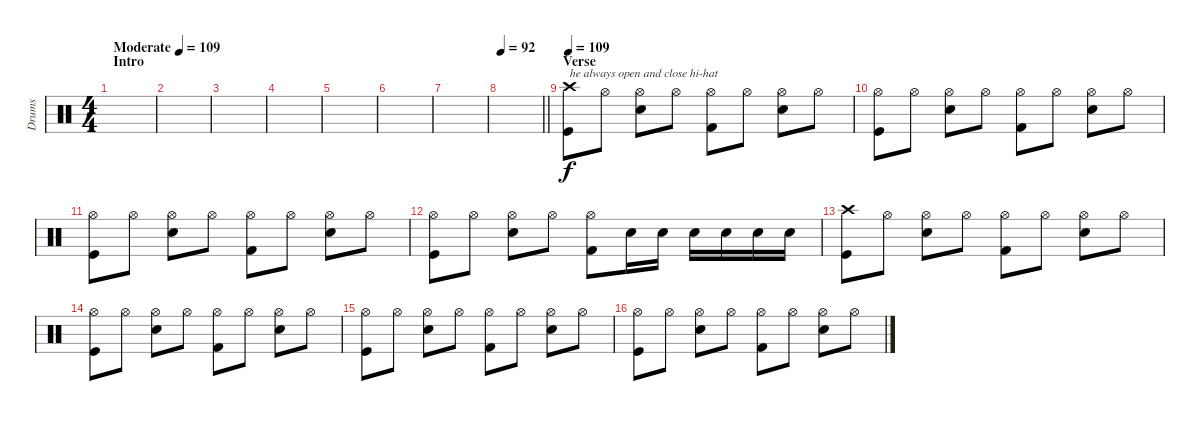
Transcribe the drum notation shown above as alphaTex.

\track ("Drums" "Drums") {instrument percussion}
\staff {score}
\articulation defaults
\ts (4 4)
\section ("" "Intro")
\tempo (109 "Moderate")
\tempo 104
\tempo (109 "Moderate")
\clef neutral
\ks c
|
|
|
|
|
|
|
\tempo 92
\barLineRight lightlight
|
\section ("" "Verse")
\tempo 109
("Crash high (hit)" "Kick (hit)").8{txt "he always open and close hi-hat"} "Hi-Hat (open)".8 ("Hi-Hat (open)" "Snare (hit) 2").8 "Hi-Hat (open)".8 ("Hi-Hat (open)" "Kick (hit) 2").8 "Hi-Hat (open)".8 ("Hi-Hat (open)" "Snare (hit) 2").8 "Hi-Hat (open)".8 |
("Hi-Hat (open)" "Kick (hit)").8 "Hi-Hat (open)".8 ("Hi-Hat (open)" "Snare (hit) 2").8 "Hi-Hat (open)".8 ("Hi-Hat (open)" "Kick (hit) 2").8 "Hi-Hat (open)".8 ("Hi-Hat (open)" "Snare (hit) 2").8 "Hi-Hat (open)".8 |
("Hi-Hat (open)" "Kick (hit)").8 "Hi-Hat (open)".8 ("Hi-Hat (open)" "Snare (hit) 2").8 "Hi-Hat (open)".8 ("Hi-Hat (open)" "Kick (hit) 2").8 "Hi-Hat (open)".8 ("Hi-Hat (open)" "Snare (hit) 2").8 "Hi-Hat (open)".8 |
("Hi-Hat (open)" "Kick (hit)").8 "Hi-Hat (open)".8 ("Hi-Hat (open)" "Snare (hit) 2").8 "Hi-Hat (open)".8 ("Hi-Hat (open)" "Kick (hit) 2").8 "Snare (hit) 2".16 "Snare (hit) 2".16 "Snare (hit) 2".16 "Snare (hit) 2".16 "Snare (hit) 2".16 "Snare (hit) 2".16 |
("Crash high (hit)" "Kick (hit)").8 "Hi-Hat (open)".8 ("Hi-Hat (open)" "Snare (hit) 2").8 "Hi-Hat (open)".8 ("Hi-Hat (open)" "Kick (hit) 2").8 "Hi-Hat (open)".8 ("Hi-Hat (open)" "Snare (hit) 2").8 "Hi-Hat (open)".8 |
("Hi-Hat (open)" "Kick (hit)").8 "Hi-Hat (open)".8 ("Hi-Hat (open)" "Snare (hit) 2").8 "Hi-Hat (open)".8 ("Hi-Hat (open)" "Kick (hit) 2").8 "Hi-Hat (open)".8 ("Hi-Hat (open)" "Snare (hit) 2").8 "Hi-Hat (open)".8 |
("Hi-Hat (open)" "Kick (hit)").8 "Hi-Hat (open)".8 ("Hi-Hat (open)" "Snare (hit) 2").8 "Hi-Hat (open)".8 ("Hi-Hat (open)" "Kick (hit) 2").8 "Hi-Hat (open)".8 ("Hi-Hat (open)" "Snare (hit) 2").8 "Hi-Hat (open)".8 |
("Hi-Hat (open)" "Kick (hit)").8 "Hi-Hat (open)".8 ("Hi-Hat (open)" "Snare (hit) 2").8 "Hi-Hat (open)".8 ("Hi-Hat (open)" "Kick (hit) 2").8 "Hi-Hat (open)".8 ("Hi-Hat (open)" "Snare (hit) 2").8 "Hi-Hat (open)".8
